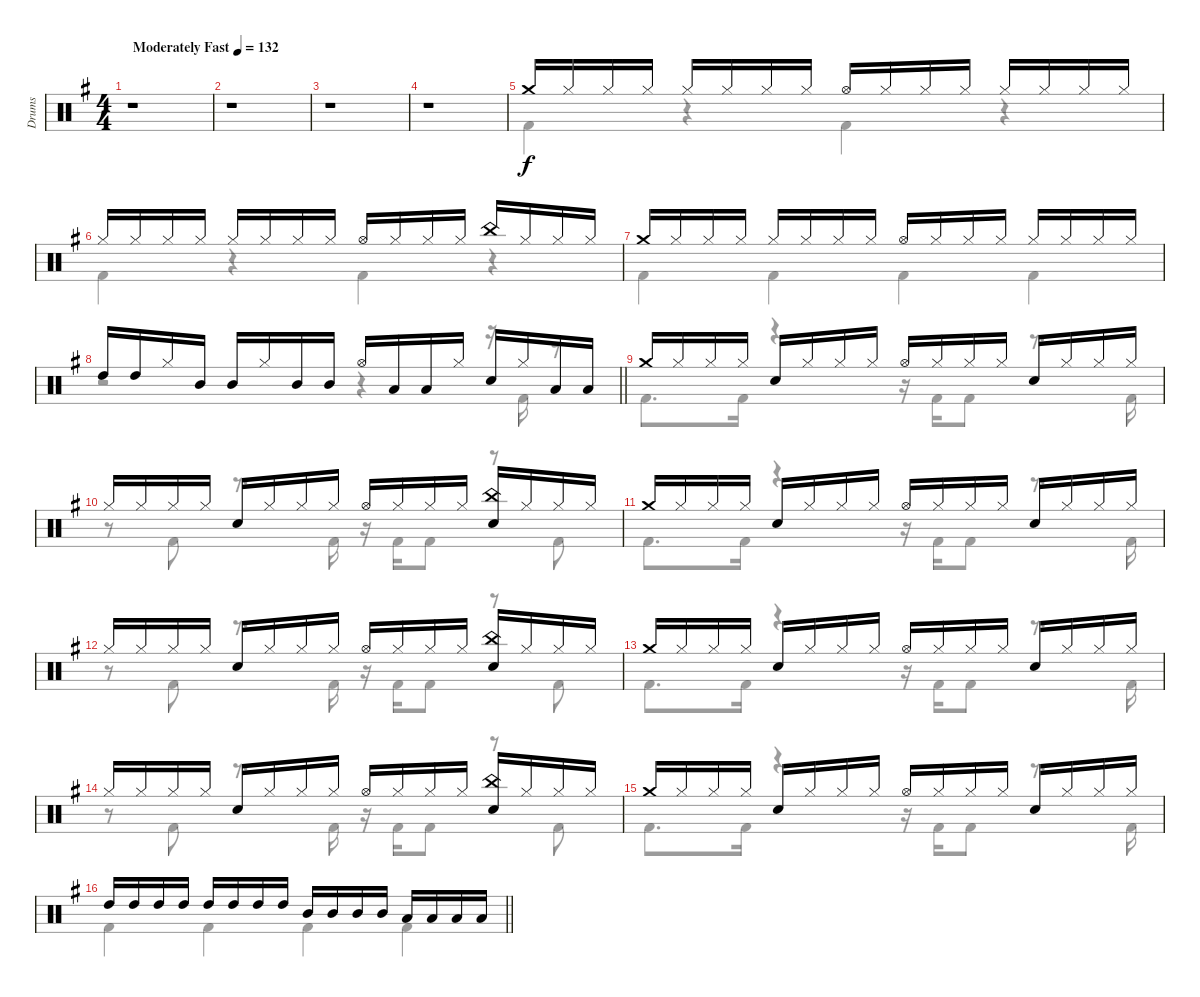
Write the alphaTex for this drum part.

\track ("Drums" "Drums") {instrument percussion}
\staff {score}
\articulation defaults
\voice
\ts (4 4)
\tempo (132 "Moderately Fast")
\clef neutral
\ks g
r.1{dy f} |
r.1 |
r.1 |
r.1 |
"Crash medium (hit)".16 "Hi-Hat (closed)".16 "Hi-Hat (closed)".16 "Hi-Hat (closed)".16 "Hi-Hat (closed)".16 "Hi-Hat (closed)".16 "Hi-Hat (closed)".16 "Hi-Hat (closed)".16 "Hi-Hat (open)".16 "Hi-Hat (closed)".16 "Hi-Hat (closed)".16 "Hi-Hat (closed)".16 "Hi-Hat (closed)".16 "Hi-Hat (closed)".16 "Hi-Hat (closed)".16 "Hi-Hat (closed)".16 |
"Hi-Hat (closed)".16 "Hi-Hat (closed)".16 "Hi-Hat (closed)".16 "Hi-Hat (closed)".16 "Hi-Hat (closed)".16 "Hi-Hat (closed)".16 "Hi-Hat (closed)".16 "Hi-Hat (closed)".16 "Hi-Hat (open)".16 "Hi-Hat (closed)".16 "Hi-Hat (closed)".16 "Hi-Hat (closed)".16 "China (hit)".16 "Hi-Hat (closed)".16 "Hi-Hat (closed)".16 "Hi-Hat (closed)".16 |
"Crash medium (hit)".16 "Hi-Hat (closed)".16 "Hi-Hat (closed)".16 "Hi-Hat (closed)".16 "Hi-Hat (closed)".16 "Hi-Hat (closed)".16 "Hi-Hat (closed)".16 "Hi-Hat (closed)".16 "Hi-Hat (open)".16 "Hi-Hat (closed)".16 "Hi-Hat (closed)".16 "Hi-Hat (closed)".16 "Hi-Hat (closed)".16 "Hi-Hat (closed)".16 "Hi-Hat (closed)".16 "Hi-Hat (closed)".16 |
\barLineRight lightlight "High Tom (hit)".16 "High Tom (hit)".16 "Hi-Hat (closed)".16 "Mid Tom (hit)".16 "Mid Tom (hit)".16 "Hi-Hat (closed)".16 "Mid Tom (hit)".16 "Mid Tom (hit)".16 "Hi-Hat (open)".16 "Low Tom (hit)".16 "Low Tom (hit)".16 "Hi-Hat (closed)".16 "Electric Snare (hit)".16 "Hi-Hat (closed)".16 "Low Tom (hit)".16 "Low Tom (hit)".16
|
"Crash medium (hit)".16 "Hi-Hat (closed)".16 "Hi-Hat (closed)".16 "Hi-Hat (closed)".16 "Electric Snare (hit)".16 "Hi-Hat (closed)".16 "Hi-Hat (closed)".16 "Hi-Hat (closed)".16 "Hi-Hat (open)".16 "Hi-Hat (closed)".16 "Hi-Hat (closed)".16 "Hi-Hat (closed)".16 "Electric Snare (hit)".16 "Hi-Hat (closed)".16 "Hi-Hat (closed)".16 "Hi-Hat (closed)".16 |
"Hi-Hat (closed)".16 "Hi-Hat (closed)".16 "Hi-Hat (closed)".16 "Hi-Hat (closed)".16 "Electric Snare (hit)".16 "Hi-Hat (closed)".16 "Hi-Hat (closed)".16 "Hi-Hat (closed)".16 "Hi-Hat (open)".16 "Hi-Hat (closed)".16 "Hi-Hat (closed)".16 "Hi-Hat (closed)".16 ("China (hit)" "Electric Snare (hit)").16 "Hi-Hat (closed)".16 "Hi-Hat (closed)".16 "Hi-Hat (closed)".16 |
"Crash medium (hit)".16 "Hi-Hat (closed)".16 "Hi-Hat (closed)".16 "Hi-Hat (closed)".16 "Electric Snare (hit)".16 "Hi-Hat (closed)".16 "Hi-Hat (closed)".16 "Hi-Hat (closed)".16 "Hi-Hat (open)".16 "Hi-Hat (closed)".16 "Hi-Hat (closed)".16 "Hi-Hat (closed)".16 "Electric Snare (hit)".16 "Hi-Hat (closed)".16 "Hi-Hat (closed)".16 "Hi-Hat (closed)".16 |
"Hi-Hat (closed)".16 "Hi-Hat (closed)".16 "Hi-Hat (closed)".16 "Hi-Hat (closed)".16 "Electric Snare (hit)".16 "Hi-Hat (closed)".16 "Hi-Hat (closed)".16 "Hi-Hat (closed)".16 "Hi-Hat (open)".16 "Hi-Hat (closed)".16 "Hi-Hat (closed)".16 "Hi-Hat (closed)".16 ("China (hit)" "Electric Snare (hit)").16 "Hi-Hat (closed)".16 "Hi-Hat (closed)".16 "Hi-Hat (closed)".16 |
"Crash medium (hit)".16 "Hi-Hat (closed)".16 "Hi-Hat (closed)".16 "Hi-Hat (closed)".16 "Electric Snare (hit)".16 "Hi-Hat (closed)".16 "Hi-Hat (closed)".16 "Hi-Hat (closed)".16 "Hi-Hat (open)".16 "Hi-Hat (closed)".16 "Hi-Hat (closed)".16 "Hi-Hat (closed)".16 "Electric Snare (hit)".16 "Hi-Hat (closed)".16 "Hi-Hat (closed)".16 "Hi-Hat (closed)".16 |
"Hi-Hat (closed)".16 "Hi-Hat (closed)".16 "Hi-Hat (closed)".16 "Hi-Hat (closed)".16 "Electric Snare (hit)".16 "Hi-Hat (closed)".16 "Hi-Hat (closed)".16 "Hi-Hat (closed)".16 "Hi-Hat (open)".16 "Hi-Hat (closed)".16 "Hi-Hat (closed)".16 "Hi-Hat (closed)".16 ("China (hit)" "Electric Snare (hit)").16 "Hi-Hat (closed)".16 "Hi-Hat (closed)".16 "Hi-Hat (closed)".16 |
"Crash medium (hit)".16 "Hi-Hat (closed)".16 "Hi-Hat (closed)".16 "Hi-Hat (closed)".16 "Electric Snare (hit)".16 "Hi-Hat (closed)".16 "Hi-Hat (closed)".16 "Hi-Hat (closed)".16 "Hi-Hat (open)".16 "Hi-Hat (closed)".16 "Hi-Hat (closed)".16 "Hi-Hat (closed)".16 "Electric Snare (hit)".16 "Hi-Hat (closed)".16 "Hi-Hat (closed)".16 "Hi-Hat (closed)".16 |
\barLineRight lightlight "High Tom (hit)".16 "High Tom (hit)".16 "High Tom (hit)".16 "High Tom (hit)".16 "High Tom (hit)".16 "High Tom (hit)".16 "High Tom (hit)".16 "High Tom (hit)".16 "Mid Tom (hit)".16 "Mid Tom (hit)".16 "Mid Tom (hit)".16 "Mid Tom (hit)".16 "Low Tom (hit)".16 "Low Tom (hit)".16 "Low Tom (hit)".16 "Low Tom (hit)".16
\voice
\clef neutral
\ottava regular
\simile none
\ks g
|
|
|
|
"Kick (hit) 2".4 r.4 "Kick (hit) 2".4 r.4 |
"Kick (hit) 2".4 r.4 "Kick (hit) 2".4 r.4 |
"Kick (hit) 2".4 "Kick (hit) 2".4 "Kick (hit) 2".4 "Kick (hit) 2".4 |
\barLineRight lightlight
r.2 r.4 r.16 "Kick (hit) 2".16 r.8 |
"Kick (hit) 2".8{d} "Kick (hit) 2".16 r.4 r.16 "Kick (hit) 2".16 "Kick (hit) 2".8 r.8{d} "Kick (hit) 2".16 |
r.8 "Kick (hit) 2".8 r.8{d} "Kick (hit) 2".16 r.16 "Kick (hit) 2".16 "Kick (hit) 2".8 r.8 "Kick (hit) 2".8 |
"Kick (hit) 2".8{d} "Kick (hit) 2".16 r.4 r.16 "Kick (hit) 2".16 "Kick (hit) 2".8 r.8{d} "Kick (hit) 2".16 |
r.8 "Kick (hit) 2".8 r.8{d} "Kick (hit) 2".16 r.16 "Kick (hit) 2".16 "Kick (hit) 2".8 r.8 "Kick (hit) 2".8 |
"Kick (hit) 2".8{d} "Kick (hit) 2".16 r.4 r.16 "Kick (hit) 2".16 "Kick (hit) 2".8 r.8{d} "Kick (hit) 2".16 |
r.8 "Kick (hit) 2".8 r.8{d} "Kick (hit) 2".16 r.16 "Kick (hit) 2".16 "Kick (hit) 2".8 r.8 "Kick (hit) 2".8 |
"Kick (hit) 2".8{d} "Kick (hit) 2".16 r.4 r.16 "Kick (hit) 2".16 "Kick (hit) 2".8 r.8{d} "Kick (hit) 2".16 |
\barLineRight lightlight "Kick (hit) 2".4 "Kick (hit) 2".4 "Kick (hit) 2".4 "Kick (hit) 2".4
